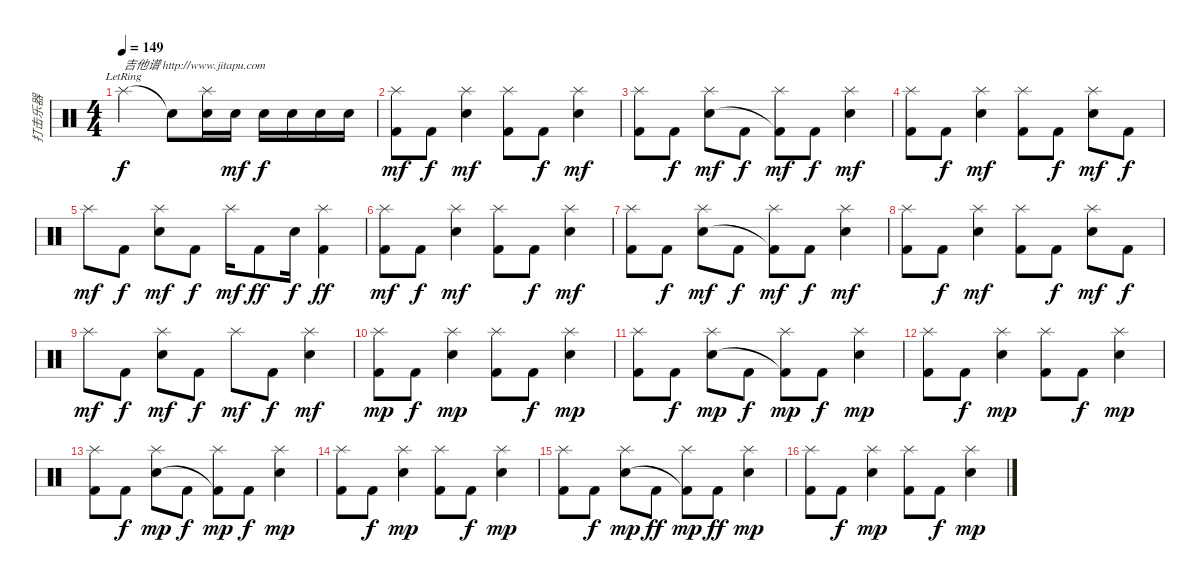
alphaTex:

\track ("打击乐器" "打击乐器") {instrument percussion}
\staff {score}
\articulation defaults
\ts (4 4)
\tempo 149
\clef neutral
\ks c "Splash (hit)"{lr}.2{txt "吉他谱 http://www.jitapu.com" dy f} "Snare (hit)"{t}.8
("Splash (hit)" "Electric Snare (hit)").16 "Electric Snare (hit)".16{dy mf} "Electric Snare (hit)".16{dy f} "Electric Snare (hit)".16 "Electric Snare (hit)".16 "Electric Snare (hit)".16 |
("Splash (hit)" "Kick (hit) 2").8{dy mf} "Kick (hit) 2".8{dy f} ("Splash (hit)" "Electric Snare (hit)").4{dy mf} ("Splash (hit)" "Kick (hit) 2").8 "Kick (hit) 2".8{dy f} ("Splash (hit)" "Electric Snare (hit)").4{dy mf} |
("Splash (hit)" "Kick (hit) 2").8 "Kick (hit) 2".8{dy f} ("Splash (hit)" "Electric Snare (hit)").8{dy mf} "Kick (hit) 2".8{dy f} ("Splash (hit)" "Kick (hit) 2"{t}).8{dy mf} "Kick (hit) 2".8{dy f} ("Splash (hit)" "Electric Snare (hit)").4{dy mf} |
("Splash (hit)" "Kick (hit) 2").8 "Kick (hit) 2".8{dy f} ("Splash (hit)" "Electric Snare (hit)").4{dy mf} ("Splash (hit)" "Kick (hit) 2").8 "Kick (hit) 2".8{dy f} ("Splash (hit)" "Electric Snare (hit)").8{dy mf} "Kick (hit) 2".8{dy f} |
"Splash (hit)".8{dy mf} "Kick (hit) 2".8{dy f} ("Splash (hit)" "Electric Snare (hit)").8{dy mf} "Kick (hit) 2".8{dy f} "Splash (hit)".16{dy mf} "Kick (hit) 2".8{dy ff} "Electric Snare (hit)".16{dy f} ("Splash (hit)" "Kick (hit) 2").4{dy ff} |
("Splash (hit)" "Kick (hit) 2").8{dy mf} "Kick (hit) 2".8{dy f} ("Splash (hit)" "Electric Snare (hit)").4{dy mf} ("Splash (hit)" "Kick (hit) 2").8 "Kick (hit) 2".8{dy f} ("Splash (hit)" "Electric Snare (hit)").4{dy mf} |
("Splash (hit)" "Kick (hit) 2").8 "Kick (hit) 2".8{dy f} ("Splash (hit)" "Electric Snare (hit)").8{dy mf} "Kick (hit) 2".8{dy f} ("Splash (hit)" "Kick (hit) 2"{t}).8{dy mf} "Kick (hit) 2".8{dy f} ("Splash (hit)" "Electric Snare (hit)").4{dy mf} |
("Splash (hit)" "Kick (hit) 2").8 "Kick (hit) 2".8{dy f} ("Splash (hit)" "Electric Snare (hit)").4{dy mf} ("Splash (hit)" "Kick (hit) 2").8 "Kick (hit) 2".8{dy f} ("Splash (hit)" "Electric Snare (hit)").8{dy mf} "Kick (hit) 2".8{dy f} |
"Splash (hit)".8{dy mf} "Kick (hit) 2".8{dy f} ("Splash (hit)" "Electric Snare (hit)").8{dy mf} "Kick (hit) 2".8{dy f} "Splash (hit)".8{dy mf} "Kick (hit) 2".8{dy f} ("Splash (hit)" "Electric Snare (hit)").4{dy mf} |
("Splash (hit)" "Kick (hit) 2").8{dy mp} "Kick (hit) 2".8{dy f} ("Splash (hit)" "Electric Snare (hit)").4{dy mp} ("Splash (hit)" "Kick (hit) 2").8 "Kick (hit) 2".8{dy f} ("Splash (hit)" "Electric Snare (hit)").4{dy mp} |
("Splash (hit)" "Kick (hit) 2").8 "Kick (hit) 2".8{dy f} ("Splash (hit)" "Electric Snare (hit)").8{dy mp} "Kick (hit) 2".8{dy f} ("Splash (hit)" "Kick (hit) 2"{t}).8{dy mp} "Kick (hit) 2".8{dy f} ("Splash (hit)" "Electric Snare (hit)").4{dy mp} |
("Splash (hit)" "Kick (hit) 2").8 "Kick (hit) 2".8{dy f} ("Splash (hit)" "Electric Snare (hit)").4{dy mp} ("Splash (hit)" "Kick (hit) 2").8 "Kick (hit) 2".8{dy f} ("Splash (hit)" "Electric Snare (hit)").4{dy mp} |
("Splash (hit)" "Kick (hit) 2").8 "Kick (hit) 2".8{dy f} ("Splash (hit)" "Electric Snare (hit)").8{dy mp} "Kick (hit) 2".8{dy f} ("Splash (hit)" "Kick (hit) 2"{t}).8{dy mp} "Kick (hit) 2".8{dy f} ("Splash (hit)" "Electric Snare (hit)").4{dy mp} |
("Splash (hit)" "Kick (hit) 2").8 "Kick (hit) 2".8{dy f} ("Splash (hit)" "Electric Snare (hit)").4{dy mp} ("Splash (hit)" "Kick (hit) 2").8 "Kick (hit) 2".8{dy f} ("Splash (hit)" "Electric Snare (hit)").4{dy mp} |
("Splash (hit)" "Kick (hit) 2").8 "Kick (hit) 2".8{dy f} ("Splash (hit)" "Electric Snare (hit)").8{dy mp} "Kick (hit) 2".8{dy ff} ("Splash (hit)" "Kick (hit) 2"{t}).8{dy mp} "Kick (hit) 2".8{dy ff} ("Splash (hit)" "Electric Snare (hit)").4{dy mp} |
("Splash (hit)" "Kick (hit) 2").8 "Kick (hit) 2".8{dy f} ("Splash (hit)" "Electric Snare (hit)").4{dy mp} ("Splash (hit)" "Kick (hit) 2").8 "Kick (hit) 2".8{dy f} ("Splash (hit)" "Electric Snare (hit)").4{dy mp}
